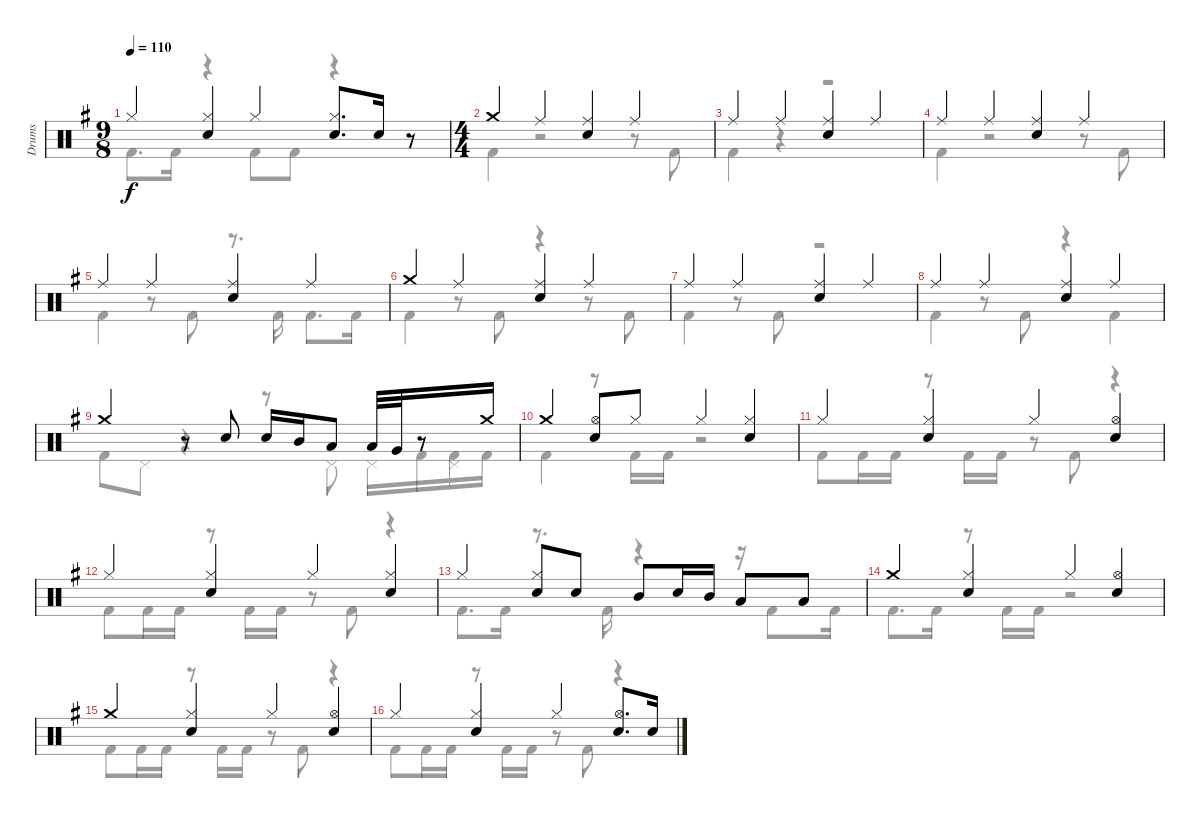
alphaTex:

\track ("Drums" "Drums") {instrument percussion}
\staff {score}
\articulation defaults
\voice
\ts (9 8)
\tempo 110
\clef neutral
\ks g "Hi-Hat (closed)".4{dy f}
("Hi-Hat (closed)" "Snare (hit) 2").4 "Hi-Hat (closed)".4 ("Hi-Hat (closed)" "Snare (hit) 2").8{d} "Snare (hit) 2".16 r.8 |
\ts (4 4)
"Crash medium (hit)".4 "Ride (middle)".4 ("Ride (middle)" "Snare (hit) 2").4 "Ride (middle)".4 |
"Ride (middle)".4 "Ride (middle)".4 ("Ride (middle)" "Snare (hit) 2").4 "Ride (middle)".4 |
"Ride (middle)".4 "Ride (middle)".4 ("Ride (middle)" "Snare (hit) 2").4 "Ride (middle)".4 |
"Ride (middle)".4 "Ride (middle)".4 ("Ride (middle)" "Snare (hit) 2").4 "Ride (middle)".4 |
"Crash medium (hit)".4 "Ride (middle)".4 ("Ride (middle)" "Snare (hit) 2").4 "Ride (middle)".4 |
"Ride (middle)".4 "Ride (middle)".4 ("Ride (middle)" "Snare (hit) 2").4 "Ride (middle)".4 |
"Ride (middle)".4 "Ride (middle)".4 ("Ride (middle)" "Snare (hit) 2").4 "Ride (middle)".4 |
"Crash medium (hit)".4 r.8 "Snare (hit) 2".8 "Snare (hit) 2".16 "Mid Tom (hit)".16 "Low Tom (hit)".8 "Low Tom (hit)".32 "Very Low Tom (hit)".32 r.8 "Crash medium (hit)".16 |
"Crash medium (hit)".4 ("Hi-Hat (open)" "Snare (hit) 2").8 "Hi-Hat (closed)".8 "Hi-Hat (closed)".4 ("Hi-Hat (closed)" "Snare (hit) 2").4 |
"Hi-Hat (closed)".4 ("Hi-Hat (closed)" "Snare (hit) 2").4 "Hi-Hat (closed)".4 ("Hi-Hat (open)" "Snare (hit) 2").4 |
"Hi-Hat (closed)".4 ("Hi-Hat (closed)" "Snare (hit) 2").4 "Hi-Hat (closed)".4 ("Hi-Hat (closed)" "Snare (hit) 2").4 |
"Hi-Hat (closed)".4 ("Hi-Hat (closed)" "Snare (hit) 2").8 "Snare (hit) 2".8 "Mid Tom (hit)".8 "Snare (hit) 2".16 "Mid Tom (hit)".16 "Low Tom (hit)".8 "Low Tom (hit)".8 |
"Crash medium (hit)".4 ("Hi-Hat (closed)" "Snare (hit) 2").4 "Hi-Hat (closed)".4 ("Hi-Hat (open)" "Snare (hit) 2").4 |
"Crash medium (hit)".4 ("Hi-Hat (closed)" "Snare (hit) 2").4 "Hi-Hat (closed)".4 ("Hi-Hat (open)" "Snare (hit) 2").4 |
"Hi-Hat (closed)".4 ("Hi-Hat (closed)" "Snare (hit) 2").4 "Hi-Hat (closed)".4 ("Hi-Hat (open)" "Snare (hit) 2").8{d} "Snare (hit) 2".16
\voice
\clef neutral
\ottava regular
\simile none
\ks g "Kick (hit) 2".8{d dy f} "Kick (hit) 2".16
r.4 "Kick (hit) 2".8 "Kick (hit) 2".8 r.4 r.8 |
"Kick (hit) 2".4 r.2 r.8 "Kick (hit) 2".8 |
"Kick (hit) 2".4 r.4 r.2 |
"Kick (hit) 2".4 r.2 r.8 "Kick (hit) 2".8 |
"Kick (hit) 2".4 r.8 "Kick (hit) 2".8 r.8{d} "Kick (hit) 2".16 "Kick (hit) 2".8{d} "Kick (hit) 2".16 |
"Kick (hit) 2".4 r.8 "Kick (hit) 2".8 r.4 r.8 "Kick (hit) 2".8 |
"Kick (hit) 2".4 r.8 "Kick (hit) 2".8 r.2 |
"Kick (hit) 2".4 r.8 "Kick (hit) 2".8 r.4 "Kick (hit) 2".4 |
"Kick (hit) 2".8 "Pedal Hi-Hat (hit)".8 r.4 r.8 "Pedal Hi-Hat (hit)".8 "Pedal Hi-Hat (hit)".16 "Kick (hit) 2".16 ("Pedal Hi-Hat (hit)" "Kick (hit) 2").16 "Kick (hit) 2".16 |
"Kick (hit) 2".4 r.8 "Kick (hit) 2".16 "Kick (hit) 2".16 r.2 |
"Kick (hit) 2".8 "Kick (hit) 2".16 "Kick (hit) 2".16 r.8 "Kick (hit) 2".16 "Kick (hit) 2".16 r.8 "Kick (hit) 2".8 r.4 |
"Kick (hit) 2".8 "Kick (hit) 2".16 "Kick (hit) 2".16 r.8 "Kick (hit) 2".16 "Kick (hit) 2".16 r.8 "Kick (hit) 2".8 r.4 |
"Kick (hit) 2".8{d} "Kick (hit) 2".16 r.8{d} "Kick (hit) 2".16 r.4 r.16 "Kick (hit) 2".8 "Kick (hit) 2".16 |
"Kick (hit) 2".8{d} "Kick (hit) 2".16 r.8 "Kick (hit) 2".16 "Kick (hit) 2".16 r.2 |
"Kick (hit) 2".8 "Kick (hit) 2".16 "Kick (hit) 2".16 r.8 "Kick (hit) 2".16 "Kick (hit) 2".16 r.8 "Kick (hit) 2".8 r.4 |
"Kick (hit) 2".8 "Kick (hit) 2".16 "Kick (hit) 2".16 r.8 "Kick (hit) 2".16 "Kick (hit) 2".16 r.8 "Kick (hit) 2".8 r.4
